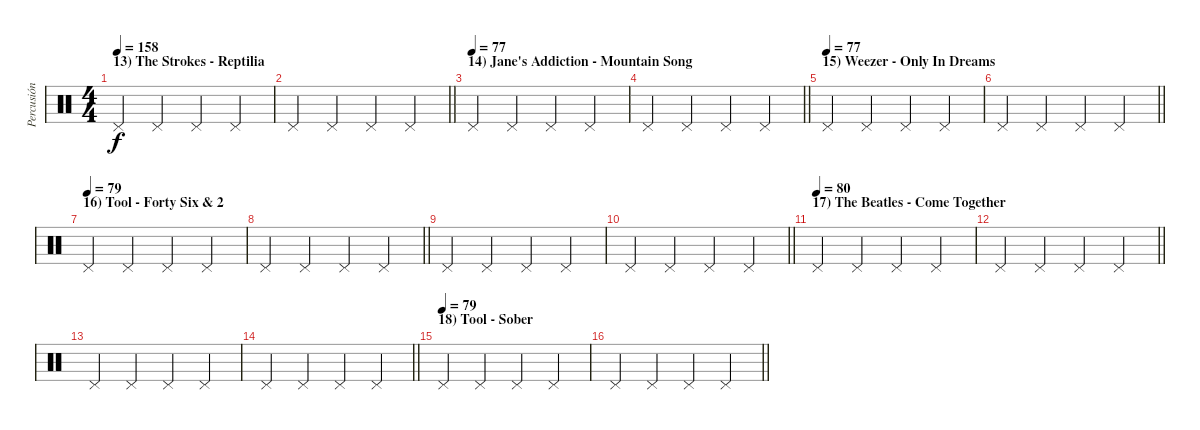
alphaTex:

\track ("Percusión" "Percusión") {instrument percussion}
\staff {score}
\articulation defaults
\ts (4 4)
\section ("" "13) The Strokes - Reptilia")
\tempo 158
\clef neutral
\ks c "Pedal Hi-Hat (hit)".4{dy f} "Pedal Hi-Hat (hit)".4 "Pedal Hi-Hat (hit)".4 "Pedal Hi-Hat (hit)".4
|
\barLineRight lightlight "Pedal Hi-Hat (hit)".4 "Pedal Hi-Hat (hit)".4 "Pedal Hi-Hat (hit)".4 "Pedal Hi-Hat (hit)".4
|
\section ("" "14) Jane's Addiction - Mountain Song")
\tempo (77)
"Pedal Hi-Hat (hit)".4 "Pedal Hi-Hat (hit)".4 "Pedal Hi-Hat (hit)".4 "Pedal Hi-Hat (hit)".4 |
\barLineRight lightlight "Pedal Hi-Hat (hit)".4 "Pedal Hi-Hat (hit)".4 "Pedal Hi-Hat (hit)".4 "Pedal Hi-Hat (hit)".4
|
\section ("" "15) Weezer - Only In Dreams")
\tempo (77)
"Pedal Hi-Hat (hit)".4 "Pedal Hi-Hat (hit)".4 "Pedal Hi-Hat (hit)".4 "Pedal Hi-Hat (hit)".4 |
\barLineRight lightlight "Pedal Hi-Hat (hit)".4 "Pedal Hi-Hat (hit)".4 "Pedal Hi-Hat (hit)".4 "Pedal Hi-Hat (hit)".4
|
\section ("" "16) Tool - Forty Six & 2")
\tempo (79)
"Pedal Hi-Hat (hit)".4 "Pedal Hi-Hat (hit)".4 "Pedal Hi-Hat (hit)".4 "Pedal Hi-Hat (hit)".4 |
\barLineRight lightlight "Pedal Hi-Hat (hit)".4 "Pedal Hi-Hat (hit)".4 "Pedal Hi-Hat (hit)".4 "Pedal Hi-Hat (hit)".4
|
"Pedal Hi-Hat (hit)".4 "Pedal Hi-Hat (hit)".4 "Pedal Hi-Hat (hit)".4 "Pedal Hi-Hat (hit)".4 |
\barLineRight lightlight "Pedal Hi-Hat (hit)".4 "Pedal Hi-Hat (hit)".4 "Pedal Hi-Hat (hit)".4 "Pedal Hi-Hat (hit)".4
|
\section ("" "17) The Beatles - Come Together")
\tempo (80)
"Pedal Hi-Hat (hit)".4 "Pedal Hi-Hat (hit)".4 "Pedal Hi-Hat (hit)".4 "Pedal Hi-Hat (hit)".4 |
\barLineRight lightlight "Pedal Hi-Hat (hit)".4 "Pedal Hi-Hat (hit)".4 "Pedal Hi-Hat (hit)".4 "Pedal Hi-Hat (hit)".4
|
"Pedal Hi-Hat (hit)".4 "Pedal Hi-Hat (hit)".4 "Pedal Hi-Hat (hit)".4 "Pedal Hi-Hat (hit)".4 |
\barLineRight lightlight "Pedal Hi-Hat (hit)".4 "Pedal Hi-Hat (hit)".4 "Pedal Hi-Hat (hit)".4 "Pedal Hi-Hat (hit)".4
|
\section ("" "18) Tool - Sober")
\tempo (79)
"Pedal Hi-Hat (hit)".4 "Pedal Hi-Hat (hit)".4 "Pedal Hi-Hat (hit)".4 "Pedal Hi-Hat (hit)".4 |
\barLineRight lightlight "Pedal Hi-Hat (hit)".4 "Pedal Hi-Hat (hit)".4 "Pedal Hi-Hat (hit)".4 "Pedal Hi-Hat (hit)".4
